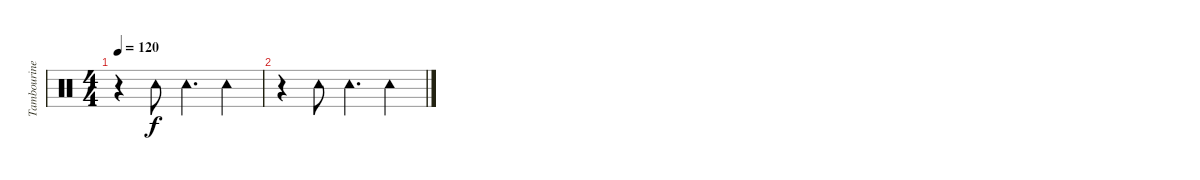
\track ("Tambourine" "Tambourine") {instrument percussion}
\staff {score}
\articulation defaults
\ts (4 4)
\tempo 120
\clef neutral
\ks c
r.4{dy f} "Tambourine (hit)".8 "Tambourine (hit)".4{d} "Tambourine (hit)".4 |
r.4 "Tambourine (hit)".8 "Tambourine (hit)".4{d} "Tambourine (hit)".4
